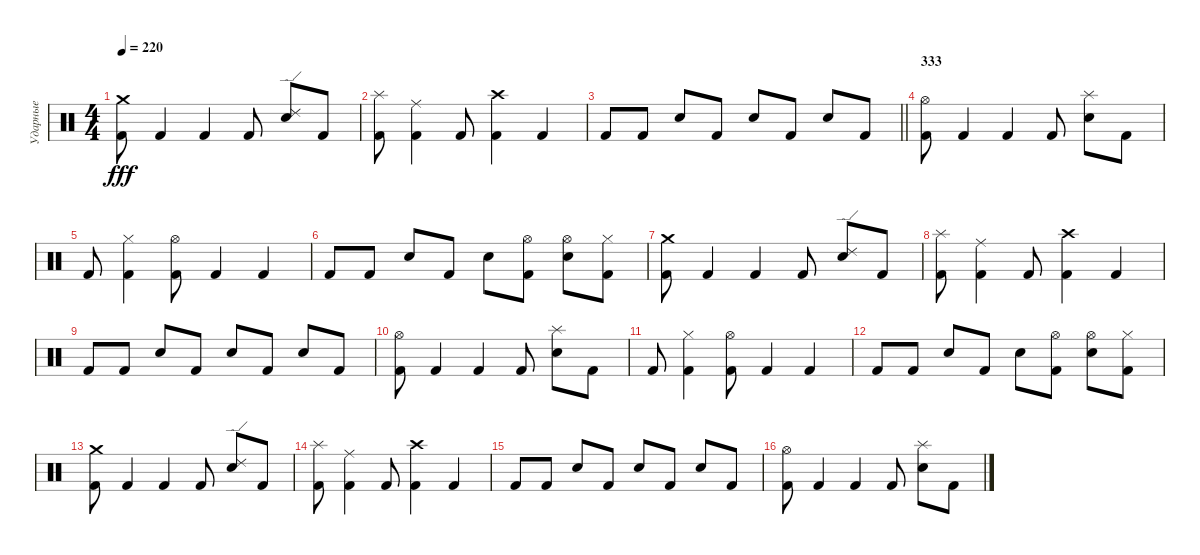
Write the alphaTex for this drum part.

\track ("Ударные" "Ударные") {instrument percussion}
\staff {score}
\articulation defaults
\ts (4 4)
\tempo 220
\clef neutral
\ks c
("Kick (hit) 2" "Crash medium (hit)").8{dy fff} "Kick (hit) 2".4 "Kick (hit) 2".4 "Kick (hit) 2".8 ("Snare (hit) 2" "Ride (edge) 2").8 "Kick (hit) 2".8 |
("Kick (hit) 2" "Splash (hit)").8 ("Kick (hit) 2" "Ride (middle)").4 "Kick (hit) 2".8 ("Kick (hit) 2" "Crash high (hit)").4 "Kick (hit) 2".4 |
\barLineRight lightlight "Kick (hit) 2".8 "Kick (hit) 2".8 "Snare (hit) 2".8 "Kick (hit) 2".8 "Snare (hit) 2".8 "Kick (hit) 2".8 "Snare (hit) 2".8 "Kick (hit) 2".8
|
\section ("" "333")
("Kick (hit) 2" "Hi-Hat (open)").8 "Kick (hit) 2".4 "Kick (hit) 2".4 "Kick (hit) 2".8 ("Snare (hit) 2" "Splash (hit)").8 "Kick (hit) 2".8 |
"Kick (hit) 2".8 ("Kick (hit) 2" "Hi-Hat (closed)").4 ("Kick (hit) 2" "Hi-Hat (open)").8 "Kick (hit) 2".4 "Kick (hit) 2".4 |
"Kick (hit) 2".8 "Kick (hit) 2".8 "Snare (hit) 2".8 "Kick (hit) 2".8 "Snare (hit) 2".8 ("Kick (hit) 2" "Hi-Hat (open)").8 ("Snare (hit) 2" "Hi-Hat (open)").8 ("Kick (hit) 2" "Hi-Hat (closed)").8 |
("Kick (hit) 2" "Crash medium (hit)").8 "Kick (hit) 2".4 "Kick (hit) 2".4 "Kick (hit) 2".8 ("Snare (hit) 2" "Ride (edge) 2").8 "Kick (hit) 2".8 |
("Kick (hit) 2" "Splash (hit)").8 ("Kick (hit) 2" "Ride (middle)").4 "Kick (hit) 2".8 ("Kick (hit) 2" "Crash high (hit)").4 "Kick (hit) 2".4 |
"Kick (hit) 2".8 "Kick (hit) 2".8 "Snare (hit) 2".8 "Kick (hit) 2".8 "Snare (hit) 2".8 "Kick (hit) 2".8 "Snare (hit) 2".8 "Kick (hit) 2".8 |
("Kick (hit) 2" "Hi-Hat (open)").8 "Kick (hit) 2".4 "Kick (hit) 2".4 "Kick (hit) 2".8 ("Snare (hit) 2" "Splash (hit)").8 "Kick (hit) 2".8 |
"Kick (hit) 2".8 ("Kick (hit) 2" "Hi-Hat (closed)").4 ("Kick (hit) 2" "Hi-Hat (open)").8 "Kick (hit) 2".4 "Kick (hit) 2".4 |
"Kick (hit) 2".8 "Kick (hit) 2".8 "Snare (hit) 2".8 "Kick (hit) 2".8 "Snare (hit) 2".8 ("Kick (hit) 2" "Hi-Hat (open)").8 ("Snare (hit) 2" "Hi-Hat (open)").8 ("Kick (hit) 2" "Hi-Hat (closed)").8 |
("Kick (hit) 2" "Crash medium (hit)").8 "Kick (hit) 2".4 "Kick (hit) 2".4 "Kick (hit) 2".8 ("Snare (hit) 2" "Ride (edge) 2").8 "Kick (hit) 2".8 |
("Kick (hit) 2" "Splash (hit)").8 ("Kick (hit) 2" "Ride (middle)").4 "Kick (hit) 2".8 ("Kick (hit) 2" "Crash high (hit)").4 "Kick (hit) 2".4 |
"Kick (hit) 2".8 "Kick (hit) 2".8 "Snare (hit) 2".8 "Kick (hit) 2".8 "Snare (hit) 2".8 "Kick (hit) 2".8 "Snare (hit) 2".8 "Kick (hit) 2".8 |
("Kick (hit) 2" "Hi-Hat (open)").8 "Kick (hit) 2".4 "Kick (hit) 2".4 "Kick (hit) 2".8 ("Snare (hit) 2" "Splash (hit)").8 "Kick (hit) 2".8
